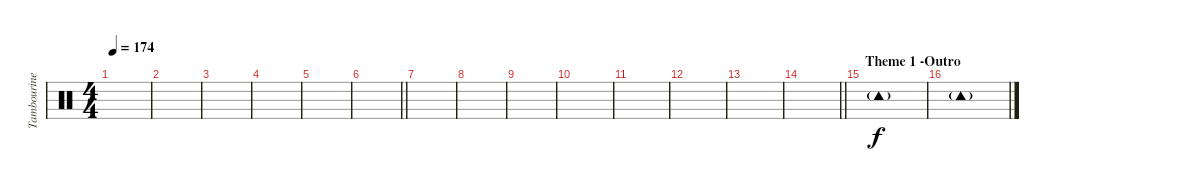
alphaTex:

\track ("Tambourine" "Tambourine") {instrument percussion}
\staff {score}
\articulation defaults
\ts (4 4)
\tempo 174
\clef neutral
\ks c
|
|
|
|
|
\barLineRight lightlight
|
|
|
|
|
|
|
|
\barLineRight lightlight
|
\section ("" "Theme 1 -Outro")
"Tambourine (hit)"{g}.1 |
"Tambourine (hit)"{g}.1
